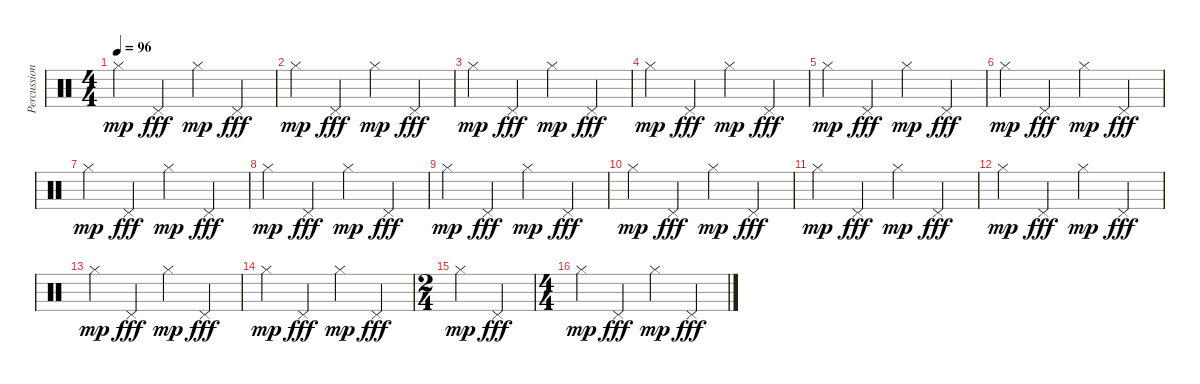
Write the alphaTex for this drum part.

\track ("Percussions" "Percussion") {instrument percussion}
\staff {score}
\articulation defaults
\ts (4 4)
\tempo 96
\clef neutral
\ks c "Hi-Hat (closed)".4{dy mp} "Pedal Hi-Hat (hit)".4{dy fff} "Hi-Hat (closed)".4{dy mp} "Pedal Hi-Hat (hit)".4{dy fff}
|
"Hi-Hat (closed)".4{dy mp} "Pedal Hi-Hat (hit)".4{dy fff} "Hi-Hat (closed)".4{dy mp} "Pedal Hi-Hat (hit)".4{dy fff} |
"Hi-Hat (closed)".4{dy mp} "Pedal Hi-Hat (hit)".4{dy fff} "Hi-Hat (closed)".4{dy mp} "Pedal Hi-Hat (hit)".4{dy fff} |
"Hi-Hat (closed)".4{dy mp} "Pedal Hi-Hat (hit)".4{dy fff} "Hi-Hat (closed)".4{dy mp} "Pedal Hi-Hat (hit)".4{dy fff} |
"Hi-Hat (closed)".4{dy mp} "Pedal Hi-Hat (hit)".4{dy fff} "Hi-Hat (closed)".4{dy mp} "Pedal Hi-Hat (hit)".4{dy fff} |
"Hi-Hat (closed)".4{dy mp} "Pedal Hi-Hat (hit)".4{dy fff} "Hi-Hat (closed)".4{dy mp} "Pedal Hi-Hat (hit)".4{dy fff} |
"Hi-Hat (closed)".4{dy mp} "Pedal Hi-Hat (hit)".4{dy fff} "Hi-Hat (closed)".4{dy mp} "Pedal Hi-Hat (hit)".4{dy fff} |
"Hi-Hat (closed)".4{dy mp} "Pedal Hi-Hat (hit)".4{dy fff} "Hi-Hat (closed)".4{dy mp} "Pedal Hi-Hat (hit)".4{dy fff} |
"Hi-Hat (closed)".4{dy mp} "Pedal Hi-Hat (hit)".4{dy fff} "Hi-Hat (closed)".4{dy mp} "Pedal Hi-Hat (hit)".4{dy fff} |
"Hi-Hat (closed)".4{dy mp} "Pedal Hi-Hat (hit)".4{dy fff} "Hi-Hat (closed)".4{dy mp} "Pedal Hi-Hat (hit)".4{dy fff} |
"Hi-Hat (closed)".4{dy mp} "Pedal Hi-Hat (hit)".4{dy fff} "Hi-Hat (closed)".4{dy mp} "Pedal Hi-Hat (hit)".4{dy fff} |
"Hi-Hat (closed)".4{dy mp} "Pedal Hi-Hat (hit)".4{dy fff} "Hi-Hat (closed)".4{dy mp} "Pedal Hi-Hat (hit)".4{dy fff} |
"Hi-Hat (closed)".4{dy mp} "Pedal Hi-Hat (hit)".4{dy fff} "Hi-Hat (closed)".4{dy mp} "Pedal Hi-Hat (hit)".4{dy fff} |
"Hi-Hat (closed)".4{dy mp} "Pedal Hi-Hat (hit)".4{dy fff} "Hi-Hat (closed)".4{dy mp} "Pedal Hi-Hat (hit)".4{dy fff} |
\ts (2 4)
"Hi-Hat (closed)".4{dy mp} "Pedal Hi-Hat (hit)".4{dy fff} |
\ts (4 4)
"Hi-Hat (closed)".4{dy mp} "Pedal Hi-Hat (hit)".4{dy fff} "Hi-Hat (closed)".4{dy mp} "Pedal Hi-Hat (hit)".4{dy fff}
